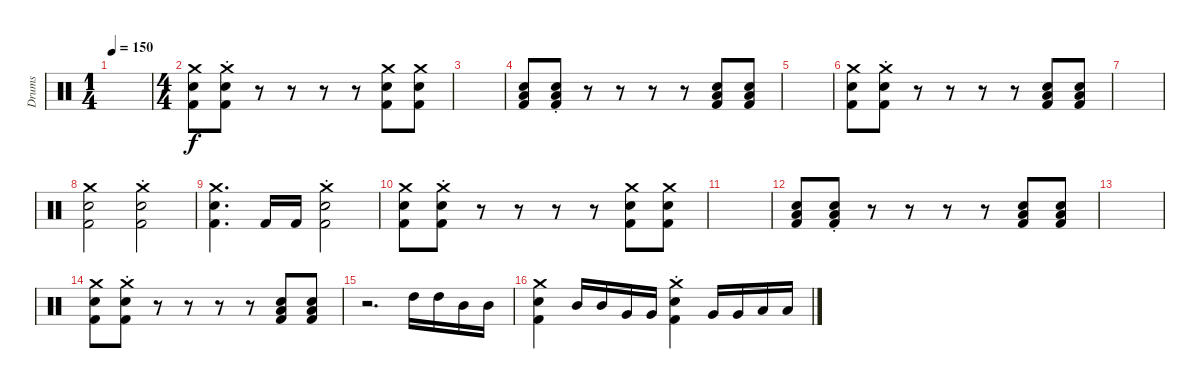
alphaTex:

\track ("Drums" "Drums") {instrument percussion}
\staff {score}
\articulation defaults
\ts (1 4)
\tempo 150
\clef neutral
\ks c
|
\ts (4 4)
("Kick (hit) 2" "Snare (hit) 2" "Crash medium (hit)").8 ("Kick (hit) 2" "Snare (hit) 2" "Crash medium (hit)"{st}).8 r.8 r.8 r.8 r.8 ("Kick (hit) 2" "Snare (hit) 2" "Crash medium (hit)").8 ("Kick (hit) 2" "Snare (hit) 2" "Crash medium (hit)").8 |
|
("Kick (hit) 2" "Snare (hit) 2" "Low Floor Tom (hit)").8 ("Kick (hit) 2" "Snare (hit) 2" "Low Floor Tom (hit)"{st}).8 r.8 r.8 r.8 r.8 ("Kick (hit) 2" "Snare (hit) 2" "Low Floor Tom (hit)").8 ("Kick (hit) 2" "Snare (hit) 2" "Low Floor Tom (hit)").8 |
|
("Kick (hit) 2" "Snare (hit) 2" "Crash medium (hit)").8 ("Kick (hit) 2" "Snare (hit) 2" "Crash medium (hit)"{st}).8 r.8 r.8 r.8 r.8 ("Kick (hit) 2" "Snare (hit) 2" "Low Floor Tom (hit)").8 ("Kick (hit) 2" "Snare (hit) 2" "Low Floor Tom (hit)").8 |
|
("Kick (hit) 2" "Snare (hit) 2" "Crash medium (hit)").2 ("Kick (hit) 2" "Snare (hit) 2" "Crash medium (hit)"{st}).2 |
("Kick (hit) 2" "Snare (hit) 2" "Crash medium (hit)").4{d} "Kick (hit) 2".16 "Kick (hit) 2".16 ("Kick (hit) 2" "Snare (hit) 2" "Crash medium (hit)"{st}).2 |
("Kick (hit) 2" "Snare (hit) 2" "Crash medium (hit)").8 ("Kick (hit) 2" "Snare (hit) 2" "Crash medium (hit)"{st}).8 r.8 r.8 r.8 r.8 ("Kick (hit) 2" "Snare (hit) 2" "Crash medium (hit)").8 ("Kick (hit) 2" "Snare (hit) 2" "Crash medium (hit)").8 |
|
("Kick (hit) 2" "Snare (hit) 2" "Low Floor Tom (hit)").8 ("Kick (hit) 2" "Snare (hit) 2" "Low Floor Tom (hit)"{st}).8 r.8 r.8 r.8 r.8 ("Kick (hit) 2" "Snare (hit) 2" "Low Floor Tom (hit)").8 ("Kick (hit) 2" "Snare (hit) 2" "Low Floor Tom (hit)").8 |
|
("Kick (hit) 2" "Snare (hit) 2" "Crash medium (hit)").8 ("Kick (hit) 2" "Snare (hit) 2" "Crash medium (hit)"{st}).8 r.8 r.8 r.8 r.8 ("Kick (hit) 2" "Snare (hit) 2" "Low Floor Tom (hit)").8 ("Kick (hit) 2" "Snare (hit) 2" "Low Floor Tom (hit)").8 |
r.2{d} "High Tom (hit)".16 "High Tom (hit)".16 "Mid Tom (hit)".16 "Mid Tom (hit)".16 |
("Kick (hit) 2" "Snare (hit) 2" "Crash medium (hit)").4 "Mid Tom (hit)".16 "Mid Tom (hit)".16 "Very Low Tom (hit)".16 "Very Low Tom (hit)".16 ("Kick (hit) 2" "Snare (hit) 2" "Crash medium (hit)"{st}).4 "Very Low Tom (hit)".16 "Very Low Tom (hit)".16 "Low Floor Tom (hit)".16 "Low Floor Tom (hit)".16
